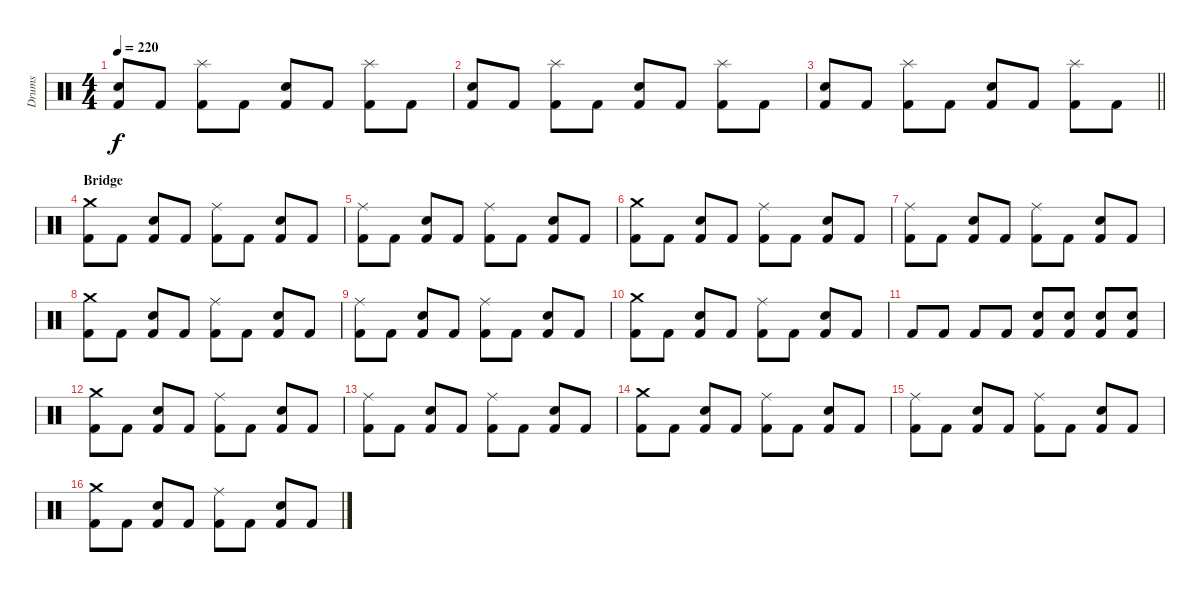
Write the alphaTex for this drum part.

\track ("Drums" "Drums") {instrument percussion}
\staff {score}
\articulation defaults
\ts (4 4)
\tempo 220
\clef neutral
\ks c
("Kick (hit) 2" "Snare (hit) 2").8{dy f} "Kick (hit) 2".8 ("Kick (hit) 2" "Splash (hit)").8 "Kick (hit) 2".8 ("Kick (hit) 2" "Snare (hit) 2").8 "Kick (hit) 2".8 ("Kick (hit) 2" "Splash (hit)").8 "Kick (hit) 2".8 |
("Kick (hit) 2" "Snare (hit) 2").8 "Kick (hit) 2".8 ("Kick (hit) 2" "Splash (hit)").8 "Kick (hit) 2".8 ("Kick (hit) 2" "Snare (hit) 2").8 "Kick (hit) 2".8 ("Kick (hit) 2" "Splash (hit)").8 "Kick (hit) 2".8 |
\barLineRight lightlight
("Kick (hit) 2" "Snare (hit) 2").8 "Kick (hit) 2".8 ("Kick (hit) 2" "Splash (hit)").8 "Kick (hit) 2".8 ("Kick (hit) 2" "Snare (hit) 2").8 "Kick (hit) 2".8 ("Kick (hit) 2" "Splash (hit)").8 "Kick (hit) 2".8 |
\section ("" "Bridge")
("Kick (hit) 2" "Crash medium (hit)").8 "Kick (hit) 2".8 ("Kick (hit) 2" "Snare (hit) 2").8 "Kick (hit) 2".8 ("Kick (hit) 2" "Ride (middle)").8 "Kick (hit) 2".8 ("Kick (hit) 2" "Snare (hit) 2").8 "Kick (hit) 2".8 |
("Kick (hit) 2" "Ride (middle)").8 "Kick (hit) 2".8 ("Kick (hit) 2" "Snare (hit) 2").8 "Kick (hit) 2".8 ("Kick (hit) 2" "Ride (middle)").8 "Kick (hit) 2".8 ("Kick (hit) 2" "Snare (hit) 2").8 "Kick (hit) 2".8 |
("Kick (hit) 2" "Crash medium (hit)").8 "Kick (hit) 2".8 ("Kick (hit) 2" "Snare (hit) 2").8 "Kick (hit) 2".8 ("Kick (hit) 2" "Ride (middle)").8 "Kick (hit) 2".8 ("Kick (hit) 2" "Snare (hit) 2").8 "Kick (hit) 2".8 |
("Kick (hit) 2" "Ride (middle)").8 "Kick (hit) 2".8 ("Kick (hit) 2" "Snare (hit) 2").8 "Kick (hit) 2".8 ("Kick (hit) 2" "Ride (middle)").8 "Kick (hit) 2".8 ("Kick (hit) 2" "Snare (hit) 2").8 "Kick (hit) 2".8 |
("Kick (hit) 2" "Crash medium (hit)").8 "Kick (hit) 2".8 ("Kick (hit) 2" "Snare (hit) 2").8 "Kick (hit) 2".8 ("Kick (hit) 2" "Ride (middle)").8 "Kick (hit) 2".8 ("Kick (hit) 2" "Snare (hit) 2").8 "Kick (hit) 2".8 |
("Kick (hit) 2" "Ride (middle)").8 "Kick (hit) 2".8 ("Kick (hit) 2" "Snare (hit) 2").8 "Kick (hit) 2".8 ("Kick (hit) 2" "Ride (middle)").8 "Kick (hit) 2".8 ("Kick (hit) 2" "Snare (hit) 2").8 "Kick (hit) 2".8 |
("Kick (hit) 2" "Crash medium (hit)").8 "Kick (hit) 2".8 ("Kick (hit) 2" "Snare (hit) 2").8 "Kick (hit) 2".8 ("Kick (hit) 2" "Ride (middle)").8 "Kick (hit) 2".8 ("Kick (hit) 2" "Snare (hit) 2").8 "Kick (hit) 2".8 |
"Kick (hit) 2".8 "Kick (hit) 2".8 "Kick (hit) 2".8 "Kick (hit) 2".8 ("Kick (hit) 2" "Snare (hit) 2").8 ("Kick (hit) 2" "Snare (hit) 2").8 ("Kick (hit) 2" "Snare (hit) 2").8 ("Kick (hit) 2" "Snare (hit) 2").8 |
("Kick (hit) 2" "Crash medium (hit)").8 "Kick (hit) 2".8 ("Kick (hit) 2" "Snare (hit) 2").8 "Kick (hit) 2".8 ("Kick (hit) 2" "Ride (middle)").8 "Kick (hit) 2".8 ("Kick (hit) 2" "Snare (hit) 2").8 "Kick (hit) 2".8 |
("Kick (hit) 2" "Ride (middle)").8 "Kick (hit) 2".8 ("Kick (hit) 2" "Snare (hit) 2").8 "Kick (hit) 2".8 ("Kick (hit) 2" "Ride (middle)").8 "Kick (hit) 2".8 ("Kick (hit) 2" "Snare (hit) 2").8 "Kick (hit) 2".8 |
("Kick (hit) 2" "Crash medium (hit)").8 "Kick (hit) 2".8 ("Kick (hit) 2" "Snare (hit) 2").8 "Kick (hit) 2".8 ("Kick (hit) 2" "Ride (middle)").8 "Kick (hit) 2".8 ("Kick (hit) 2" "Snare (hit) 2").8 "Kick (hit) 2".8 |
("Kick (hit) 2" "Ride (middle)").8 "Kick (hit) 2".8 ("Kick (hit) 2" "Snare (hit) 2").8 "Kick (hit) 2".8 ("Kick (hit) 2" "Ride (middle)").8 "Kick (hit) 2".8 ("Kick (hit) 2" "Snare (hit) 2").8 "Kick (hit) 2".8 |
("Kick (hit) 2" "Crash medium (hit)").8 "Kick (hit) 2".8 ("Kick (hit) 2" "Snare (hit) 2").8 "Kick (hit) 2".8 ("Kick (hit) 2" "Ride (middle)").8 "Kick (hit) 2".8 ("Kick (hit) 2" "Snare (hit) 2").8 "Kick (hit) 2".8
